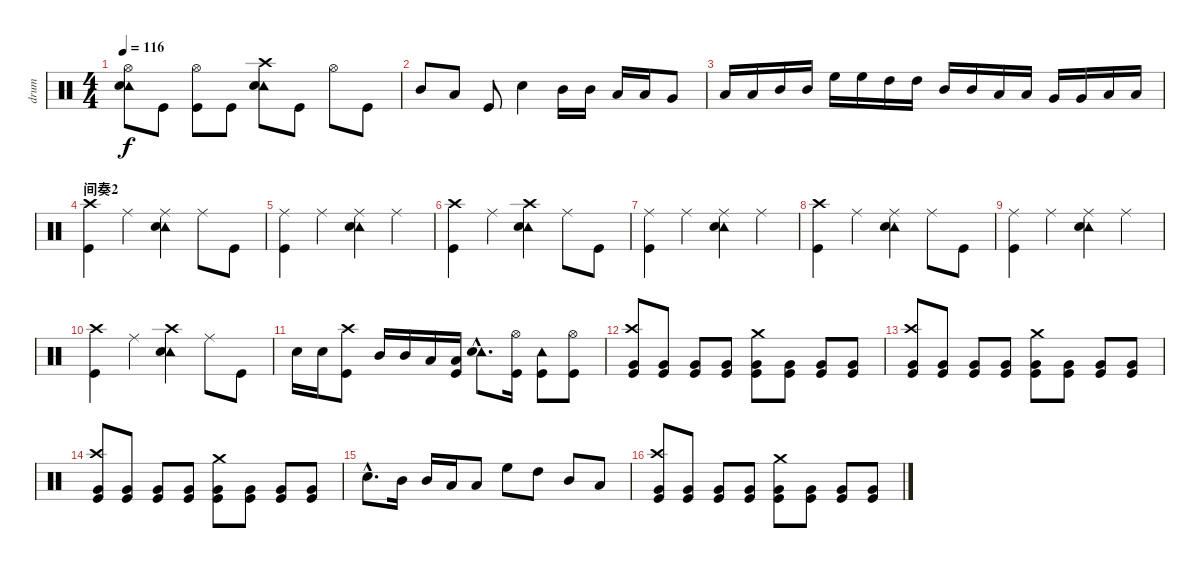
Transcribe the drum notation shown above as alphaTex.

\track ("drum" "drum") {instrument percussion}
\staff {score}
\articulation defaults
\ts (4 4)
\tempo 116
\clef neutral
\ks c
("Hi-Hat (open)" "Tambourine (hit)" "Snare (hit) 2").8{dy f} "Kick (hit)".8 ("Hi-Hat (open)" "Kick (hit)").8 "Kick (hit)".8 ("Crash high (hit)" "Tambourine (hit)" "Snare (hit) 2").8 "Kick (hit)".8 "Hi-Hat (open)".8 "Kick (hit)".8 |
"Mid Tom (hit)".8 "Low Tom (hit)".8 "Kick (hit)".8 "Snare (hit) 2".4 "Mid Tom (hit)".16 "Mid Tom (hit)".16 "Low Tom (hit)".16 "Low Tom (hit)".16 "Very Low Tom (hit)".8 |
"Low Tom (hit)".16{balance 0} "Low Tom (hit)".16{balance 1} "Mid Tom (hit)".16{balance 2} "Mid Tom (hit)".16{balance 3} "High Floor Tom (hit)".16{balance 4} "High Floor Tom (hit)".16{balance 5} "High Tom (hit)".16{balance 6} "High Tom (hit)".16{balance 7} "Mid Tom (hit)".16{balance 9} "Mid Tom (hit)".16{balance 10} "Low Tom (hit)".16{balance 11} "Low Tom (hit)".16{balance 12} "Very Low Tom (hit)".16{balance 13} "Very Low Tom (hit)".16{balance 14} "Low Floor Tom (hit)".16{balance 15} "Low Floor Tom (hit)".16{balance 16} |
\section ("" "间奏2")
("Crash high (hit)" "Kick (hit)").4 "Ride (middle)".4 ("Ride (middle)" "Tambourine (hit)" "Snare (hit) 2").4 "Ride (middle)".8 "Kick (hit)".8 |
("Ride (middle)" "Kick (hit)").4 "Ride (middle)".4 ("Ride (middle)" "Tambourine (hit)" "Snare (hit) 2").4 "Ride (middle)".4 |
("Crash high (hit)" "Kick (hit)").4 "Ride (middle)".4 ("Crash high (hit)" "Tambourine (hit)" "Snare (hit) 2").4 "Ride (middle)".8 "Kick (hit)".8 |
("Ride (middle)" "Kick (hit)").4 "Ride (middle)".4 ("Ride (middle)" "Tambourine (hit)" "Snare (hit) 2").4 "Ride (middle)".4 |
("Crash high (hit)" "Kick (hit)").4 "Ride (middle)".4 ("Ride (middle)" "Tambourine (hit)" "Snare (hit) 2").4 "Ride (middle)".8 "Kick (hit)".8 |
("Ride (middle)" "Kick (hit)").4 "Ride (middle)".4 ("Ride (middle)" "Tambourine (hit)" "Snare (hit) 2").4 "Ride (middle)".4 |
("Crash high (hit)" "Kick (hit)").4 "Ride (middle)".4 ("Crash high (hit)" "Tambourine (hit)" "Snare (hit) 2").4 "Ride (middle)".8 "Kick (hit)".8 |
"Snare (hit) 2".16 "Snare (hit) 2".16 ("Crash high (hit)" "Kick (hit)").8 "Mid Tom (hit)".16 "Mid Tom (hit)".16 "Low Tom (hit)".16 ("Low Tom (hit)" "Kick (hit)").16 ("Tambourine (hit)"{hac} "Snare (hit) 2"{hac}).8{d} ("Hi-Hat (open)" "Kick (hit)").16 ("Tambourine (hit)" "Kick (hit)").8 ("Hi-Hat (open)" "Kick (hit)").8 |
("Crash high (hit)" "Very Low Tom (hit)" "Kick (hit)").8 ("Very Low Tom (hit)" "Kick (hit)").8 ("Very Low Tom (hit)" "Kick (hit)").8 ("Very Low Tom (hit)" "Kick (hit)").8 ("Crash medium (hit)" "Very Low Tom (hit)" "Kick (hit)").8 ("Very Low Tom (hit)" "Kick (hit)").8 ("Very Low Tom (hit)" "Kick (hit)").8 ("Very Low Tom (hit)" "Kick (hit)").8 |
("Crash high (hit)" "Very Low Tom (hit)" "Kick (hit)").8 ("Very Low Tom (hit)" "Kick (hit)").8 ("Very Low Tom (hit)" "Kick (hit)").8 ("Very Low Tom (hit)" "Kick (hit)").8 ("Crash medium (hit)" "Very Low Tom (hit)" "Kick (hit)").8 ("Very Low Tom (hit)" "Kick (hit)").8 ("Very Low Tom (hit)" "Kick (hit)").8 ("Very Low Tom (hit)" "Kick (hit)").8 |
("Crash high (hit)" "Very Low Tom (hit)" "Kick (hit)").8 ("Very Low Tom (hit)" "Kick (hit)").8 ("Very Low Tom (hit)" "Kick (hit)").8 ("Very Low Tom (hit)" "Kick (hit)").8 ("Crash medium (hit)" "Very Low Tom (hit)" "Kick (hit)").8 ("Very Low Tom (hit)" "Kick (hit)").8 ("Very Low Tom (hit)" "Kick (hit)").8 ("Very Low Tom (hit)" "Kick (hit)").8 |
"Snare (hit) 2"{hac}.8{d} "Mid Tom (hit)".16 "Mid Tom (hit)".16 "Low Tom (hit)".16 "Low Tom (hit)".8 "High Floor Tom (hit)".8 "High Tom (hit)".8 "Mid Tom (hit)".8 "Low Tom (hit)".8 |
("Crash high (hit)" "Very Low Tom (hit)" "Kick (hit)").8 ("Very Low Tom (hit)" "Kick (hit)").8 ("Very Low Tom (hit)" "Kick (hit)").8 ("Very Low Tom (hit)" "Kick (hit)").8 ("Crash medium (hit)" "Very Low Tom (hit)" "Kick (hit)").8 ("Very Low Tom (hit)" "Kick (hit)").8 ("Very Low Tom (hit)" "Kick (hit)").8 ("Very Low Tom (hit)" "Kick (hit)").8
